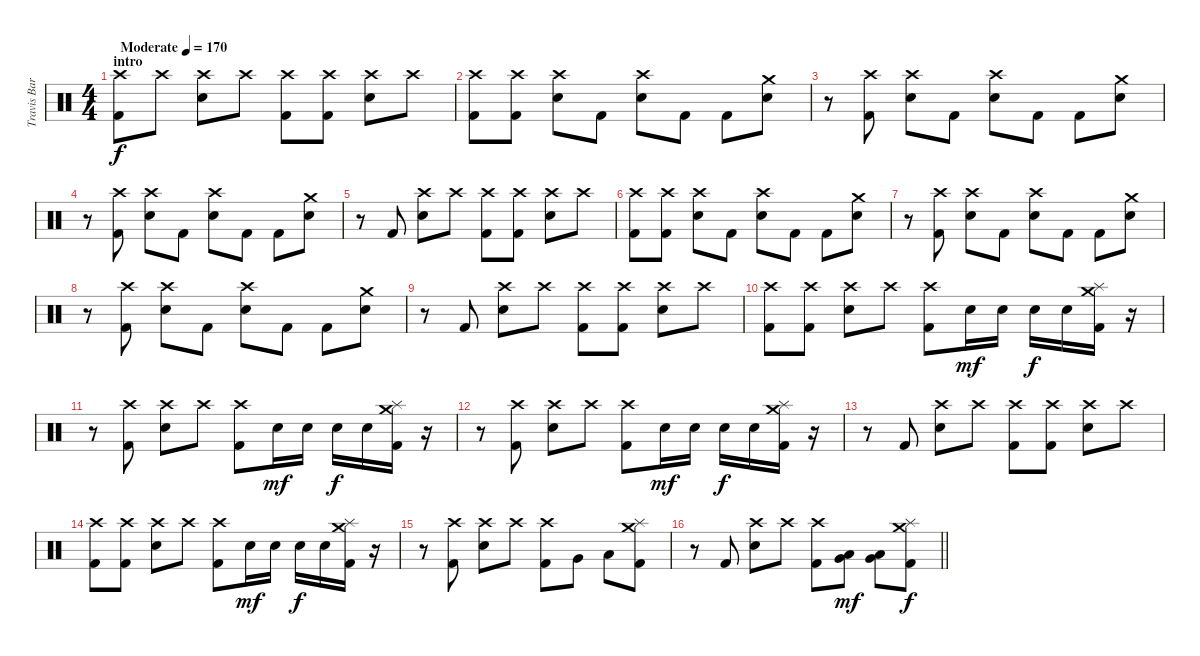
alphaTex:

\track ("Travis Barker" "Travis Bar") {instrument percussion}
\staff {score}
\articulation defaults
\ts (4 4)
\section ("" "intro")
\tempo (170 "Moderate")
\clef neutral
\ks c
("Crash high (hit)" "Kick (hit) 2").8{dy f} "Crash high (hit)".8 ("Crash high (hit)" "Electric Snare (hit)").8 "Crash high (hit)".8 ("Crash high (hit)" "Kick (hit) 2").8 ("Crash high (hit)" "Kick (hit) 2").8 ("Crash high (hit)" "Electric Snare (hit)").8 "Crash high (hit)".8 |
("Crash high (hit)" "Kick (hit) 2").8 ("Crash high (hit)" "Kick (hit) 2").8 ("Crash high (hit)" "Electric Snare (hit)").8 "Kick (hit) 2".8 ("Crash high (hit)" "Electric Snare (hit)").8 "Kick (hit) 2".8 "Kick (hit) 2".8 ("Crash medium (hit)" "Electric Snare (hit)").8 |
r.8 ("Crash high (hit)" "Kick (hit) 2").8 ("Crash high (hit)" "Electric Snare (hit)").8 "Kick (hit) 2".8 ("Crash high (hit)" "Electric Snare (hit)").8 "Kick (hit) 2".8 "Kick (hit) 2".8 ("Crash medium (hit)" "Electric Snare (hit)").8 |
r.8 ("Crash high (hit)" "Kick (hit) 2").8 ("Crash high (hit)" "Electric Snare (hit)").8 "Kick (hit) 2".8 ("Crash high (hit)" "Electric Snare (hit)").8 "Kick (hit) 2".8 "Kick (hit) 2".8 ("Crash medium (hit)" "Electric Snare (hit)").8 |
r.8 "Kick (hit) 2".8 ("Crash high (hit)" "Electric Snare (hit)").8 "Crash high (hit)".8 ("Crash high (hit)" "Kick (hit) 2").8 ("Crash high (hit)" "Kick (hit) 2").8 ("Crash high (hit)" "Electric Snare (hit)").8 "Crash high (hit)".8 |
("Crash high (hit)" "Kick (hit) 2").8 ("Crash high (hit)" "Kick (hit) 2").8 ("Crash high (hit)" "Electric Snare (hit)").8 "Kick (hit) 2".8 ("Crash high (hit)" "Electric Snare (hit)").8 "Kick (hit) 2".8 "Kick (hit) 2".8 ("Crash medium (hit)" "Electric Snare (hit)").8 |
r.8 ("Crash high (hit)" "Kick (hit) 2").8 ("Crash high (hit)" "Electric Snare (hit)").8 "Kick (hit) 2".8 ("Crash high (hit)" "Electric Snare (hit)").8 "Kick (hit) 2".8 "Kick (hit) 2".8 ("Crash medium (hit)" "Electric Snare (hit)").8 |
r.8 ("Crash high (hit)" "Kick (hit) 2").8 ("Crash high (hit)" "Electric Snare (hit)").8 "Kick (hit) 2".8 ("Crash high (hit)" "Electric Snare (hit)").8 "Kick (hit) 2".8 "Kick (hit) 2".8 ("Crash medium (hit)" "Electric Snare (hit)").8 |
r.8 "Kick (hit) 2".8 ("Crash high (hit)" "Electric Snare (hit)").8 "Crash high (hit)".8 ("Crash high (hit)" "Kick (hit) 2").8 ("Crash high (hit)" "Kick (hit) 2").8 ("Crash high (hit)" "Electric Snare (hit)").8 "Crash high (hit)".8 |
("Crash high (hit)" "Kick (hit) 2").8 ("Crash high (hit)" "Kick (hit) 2").8 ("Crash high (hit)" "Electric Snare (hit)").8 "Crash high (hit)".8 ("Crash high (hit)" "Kick (hit) 2").8 "Electric Snare (hit)".16{dy mf} "Electric Snare (hit)".16 "Electric Snare (hit)".16{dy f} "Electric Snare (hit)".16 ("Crash medium (hit)" "Kick (hit) 2" "Splash (hit)").16 r.16 |
r.8 ("Crash high (hit)" "Kick (hit) 2").8 ("Crash high (hit)" "Electric Snare (hit)").8 "Crash high (hit)".8 ("Crash high (hit)" "Kick (hit) 2").8 "Electric Snare (hit)".16{dy mf} "Electric Snare (hit)".16 "Electric Snare (hit)".16{dy f} "Electric Snare (hit)".16 ("Crash medium (hit)" "Kick (hit) 2" "Splash (hit)").16 r.16 |
r.8 ("Crash high (hit)" "Kick (hit) 2").8 ("Crash high (hit)" "Electric Snare (hit)").8 "Crash high (hit)".8 ("Crash high (hit)" "Kick (hit) 2").8 "Electric Snare (hit)".16{dy mf} "Electric Snare (hit)".16 "Electric Snare (hit)".16{dy f} "Electric Snare (hit)".16 ("Crash medium (hit)" "Kick (hit) 2" "Splash (hit)").16 r.16 |
r.8 "Kick (hit) 2".8 ("Crash high (hit)" "Electric Snare (hit)").8 "Crash high (hit)".8 ("Crash high (hit)" "Kick (hit) 2").8 ("Crash high (hit)" "Kick (hit) 2").8 ("Crash high (hit)" "Electric Snare (hit)").8 "Crash high (hit)".8 |
("Crash high (hit)" "Kick (hit) 2").8 ("Crash high (hit)" "Kick (hit) 2").8 ("Crash high (hit)" "Electric Snare (hit)").8 "Crash high (hit)".8 ("Crash high (hit)" "Kick (hit) 2").8 "Electric Snare (hit)".16{dy mf} "Electric Snare (hit)".16 "Electric Snare (hit)".16{dy f} "Electric Snare (hit)".16 ("Crash medium (hit)" "Kick (hit) 2" "Splash (hit)").16 r.16 |
r.8 ("Crash high (hit)" "Kick (hit) 2").8 ("Crash high (hit)" "Electric Snare (hit)").8 "Crash high (hit)".8 ("Crash high (hit)" "Kick (hit) 2").8 "Very Low Tom (hit)".8 "Low Floor Tom (hit)".8 ("Crash medium (hit)" "Kick (hit) 2" "Splash (hit)").8 |
\barLineRight lightlight
r.8 "Kick (hit) 2".8 ("Crash high (hit)" "Electric Snare (hit)").8 "Crash high (hit)".8 ("Crash high (hit)" "Kick (hit) 2").8 ("Very Low Tom (hit)" "Low Floor Tom (hit)").8{dy mf} ("Very Low Tom (hit)" "Low Floor Tom (hit)").8 ("Crash medium (hit)" "Kick (hit) 2" "Splash (hit)").8{dy f}
